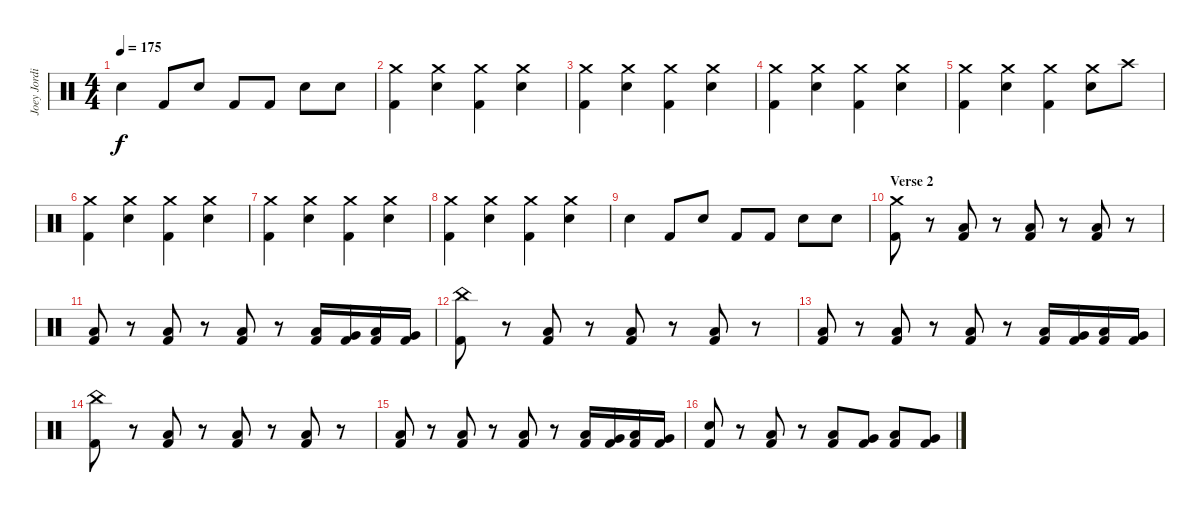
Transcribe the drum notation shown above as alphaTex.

\track ("Joey Jordison (Drums)" "Joey Jordi") {instrument percussion}
\staff {score}
\articulation defaults
\ts (4 4)
\tempo 175
\clef neutral
\ks c "Electric Snare (hit)".4{dy f} "Kick (hit) 2".8 "Electric Snare (hit)".8 "Kick (hit) 2".8 "Kick (hit) 2".8 "Electric Snare (hit)".8 "Electric Snare (hit)".8
|
("Crash medium (hit)" "Kick (hit) 2").4 ("Crash medium (hit)" "Electric Snare (hit)").4 ("Crash medium (hit)" "Kick (hit) 2").4 ("Crash medium (hit)" "Electric Snare (hit)").4 |
("Crash medium (hit)" "Kick (hit) 2").4 ("Crash medium (hit)" "Electric Snare (hit)").4 ("Crash medium (hit)" "Kick (hit) 2").4 ("Crash medium (hit)" "Electric Snare (hit)").4 |
("Crash medium (hit)" "Kick (hit) 2").4 ("Crash medium (hit)" "Electric Snare (hit)").4 ("Crash medium (hit)" "Kick (hit) 2").4 ("Crash medium (hit)" "Electric Snare (hit)").4 |
("Crash medium (hit)" "Kick (hit) 2").4 ("Crash medium (hit)" "Electric Snare (hit)").4 ("Crash medium (hit)" "Kick (hit) 2").4 ("Crash medium (hit)" "Electric Snare (hit)").8 "Crash high (hit)".8 |
("Crash medium (hit)" "Kick (hit) 2").4 ("Crash medium (hit)" "Electric Snare (hit)").4 ("Crash medium (hit)" "Kick (hit) 2").4 ("Crash medium (hit)" "Electric Snare (hit)").4 |
("Crash medium (hit)" "Kick (hit) 2").4 ("Crash medium (hit)" "Electric Snare (hit)").4 ("Crash medium (hit)" "Kick (hit) 2").4 ("Crash medium (hit)" "Electric Snare (hit)").4 |
("Crash medium (hit)" "Kick (hit) 2").4 ("Crash medium (hit)" "Electric Snare (hit)").4 ("Crash medium (hit)" "Kick (hit) 2").4 ("Crash medium (hit)" "Electric Snare (hit)").4 |
"Electric Snare (hit)".4 "Kick (hit) 2".8 "Electric Snare (hit)".8 "Kick (hit) 2".8 "Kick (hit) 2".8 "Electric Snare (hit)".8 "Electric Snare (hit)".8 |
\section ("" "Verse 2")
("Crash medium (hit)" "Kick (hit) 2").8 r.8 ("Low Floor Tom (hit)" "Kick (hit) 2").8 r.8 ("Low Floor Tom (hit)" "Kick (hit) 2").8 r.8 ("Low Floor Tom (hit)" "Kick (hit) 2").8 r.8 |
("Low Floor Tom (hit)" "Kick (hit) 2").8 r.8 ("Low Floor Tom (hit)" "Kick (hit) 2").8 r.8 ("Low Floor Tom (hit)" "Kick (hit) 2").8 r.8 ("Low Floor Tom (hit)" "Kick (hit) 2").16 ("Very Low Tom (hit)" "Kick (hit) 2").16 ("Low Floor Tom (hit)" "Kick (hit) 2").16 ("Very Low Tom (hit)" "Kick (hit) 2").16 |
("China (hit)" "Kick (hit) 2").8 r.8 ("Low Floor Tom (hit)" "Kick (hit) 2").8 r.8 ("Low Floor Tom (hit)" "Kick (hit) 2").8 r.8 ("Low Floor Tom (hit)" "Kick (hit) 2").8 r.8 |
("Low Floor Tom (hit)" "Kick (hit) 2").8 r.8 ("Low Floor Tom (hit)" "Kick (hit) 2").8 r.8 ("Low Floor Tom (hit)" "Kick (hit) 2").8 r.8 ("Low Floor Tom (hit)" "Kick (hit) 2").16 ("Very Low Tom (hit)" "Kick (hit) 2").16 ("Low Floor Tom (hit)" "Kick (hit) 2").16 ("Very Low Tom (hit)" "Kick (hit) 2").16 |
("China (hit)" "Kick (hit) 2").8 r.8 ("Low Floor Tom (hit)" "Kick (hit) 2").8 r.8 ("Low Floor Tom (hit)" "Kick (hit) 2").8 r.8 ("Low Floor Tom (hit)" "Kick (hit) 2").8 r.8 |
("Low Floor Tom (hit)" "Kick (hit) 2").8 r.8 ("Low Floor Tom (hit)" "Kick (hit) 2").8 r.8 ("Low Floor Tom (hit)" "Kick (hit) 2").8 r.8 ("Low Floor Tom (hit)" "Kick (hit) 2").16 ("Very Low Tom (hit)" "Kick (hit) 2").16 ("Low Floor Tom (hit)" "Kick (hit) 2").16 ("Very Low Tom (hit)" "Kick (hit) 2").16 |
("Electric Snare (hit)" "Kick (hit) 2").8 r.8 ("Low Floor Tom (hit)" "Kick (hit) 2").8 r.8 ("Low Floor Tom (hit)" "Kick (hit) 2").8 ("Very Low Tom (hit)" "Kick (hit) 2").8 ("Low Floor Tom (hit)" "Kick (hit) 2").8 ("Very Low Tom (hit)" "Kick (hit) 2").8
